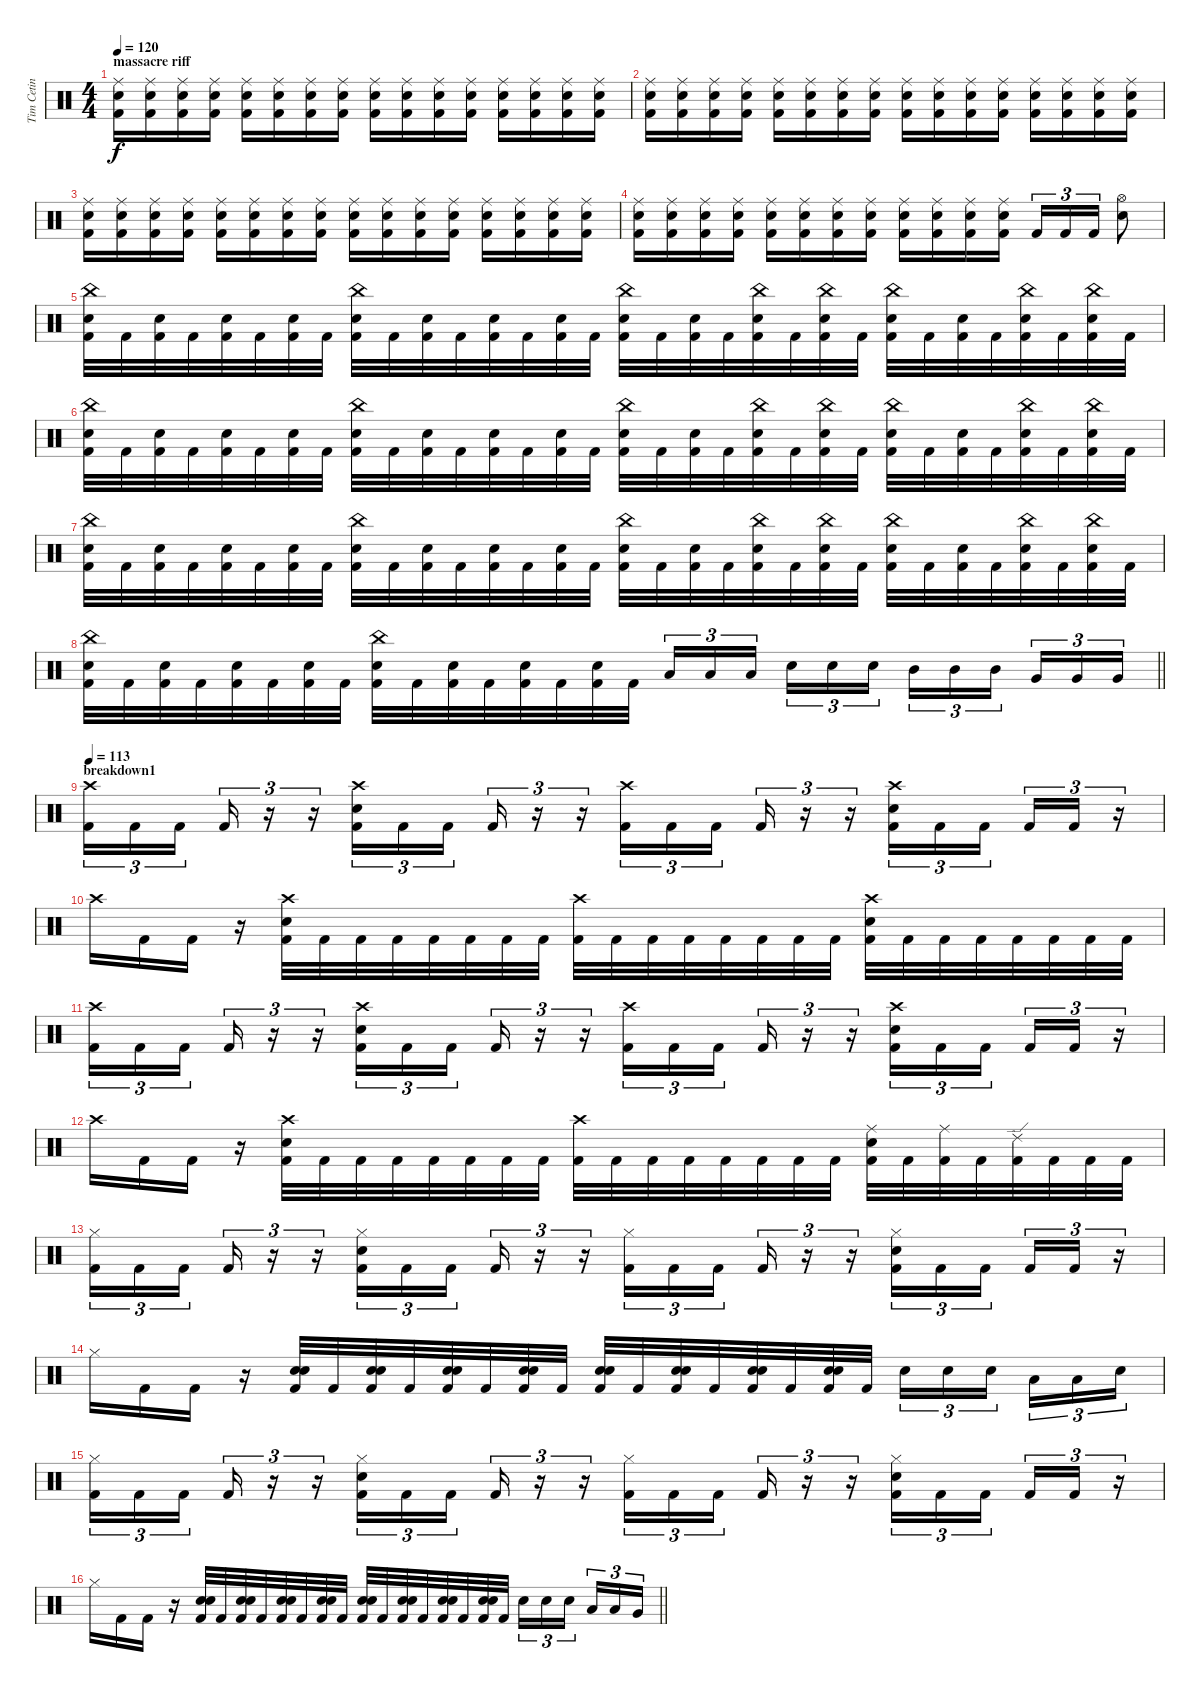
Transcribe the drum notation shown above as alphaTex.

\track ("Tim Cetin" "Tim Cetin") {instrument percussion}
\staff {score}
\articulation defaults
\ts (4 4)
\section ("" "massacre riff")
\tempo 120
\clef neutral
\ks c
("Ride (middle)" "Snare (hit) 2" "Kick (hit) 2").16{dy f} ("Ride (middle)" "Snare (hit) 2" "Kick (hit) 2").16 ("Ride (middle)" "Snare (hit) 2" "Kick (hit) 2").16 ("Ride (middle)" "Snare (hit) 2" "Kick (hit) 2").16 ("Ride (middle)" "Snare (hit) 2" "Kick (hit) 2").16 ("Ride (middle)" "Snare (hit) 2" "Kick (hit) 2").16 ("Ride (middle)" "Snare (hit) 2" "Kick (hit) 2").16 ("Ride (middle)" "Snare (hit) 2" "Kick (hit) 2").16 ("Ride (middle)" "Snare (hit) 2" "Kick (hit) 2").16 ("Ride (middle)" "Snare (hit) 2" "Kick (hit) 2").16 ("Ride (middle)" "Snare (hit) 2" "Kick (hit) 2").16 ("Ride (middle)" "Snare (hit) 2" "Kick (hit) 2").16 ("Ride (middle)" "Snare (hit) 2" "Kick (hit) 2").16 ("Ride (middle)" "Snare (hit) 2" "Kick (hit) 2").16 ("Ride (middle)" "Snare (hit) 2" "Kick (hit) 2").16 ("Ride (middle)" "Snare (hit) 2" "Kick (hit) 2").16 |
("Ride (middle)" "Snare (hit) 2" "Kick (hit) 2").16 ("Ride (middle)" "Snare (hit) 2" "Kick (hit) 2").16 ("Ride (middle)" "Snare (hit) 2" "Kick (hit) 2").16 ("Ride (middle)" "Snare (hit) 2" "Kick (hit) 2").16 ("Ride (middle)" "Snare (hit) 2" "Kick (hit) 2").16 ("Ride (middle)" "Snare (hit) 2" "Kick (hit) 2").16 ("Ride (middle)" "Snare (hit) 2" "Kick (hit) 2").16 ("Ride (middle)" "Snare (hit) 2" "Kick (hit) 2").16 ("Ride (middle)" "Snare (hit) 2" "Kick (hit) 2").16 ("Ride (middle)" "Snare (hit) 2" "Kick (hit) 2").16 ("Ride (middle)" "Snare (hit) 2" "Kick (hit) 2").16 ("Ride (middle)" "Snare (hit) 2" "Kick (hit) 2").16 ("Ride (middle)" "Snare (hit) 2" "Kick (hit) 2").16 ("Ride (middle)" "Snare (hit) 2" "Kick (hit) 2").16 ("Ride (middle)" "Snare (hit) 2" "Kick (hit) 2").16 ("Ride (middle)" "Snare (hit) 2" "Kick (hit) 2").16 |
("Ride (middle)" "Snare (hit) 2" "Kick (hit) 2").16 ("Ride (middle)" "Snare (hit) 2" "Kick (hit) 2").16 ("Ride (middle)" "Snare (hit) 2" "Kick (hit) 2").16 ("Ride (middle)" "Snare (hit) 2" "Kick (hit) 2").16 ("Ride (middle)" "Snare (hit) 2" "Kick (hit) 2").16 ("Ride (middle)" "Snare (hit) 2" "Kick (hit) 2").16 ("Ride (middle)" "Snare (hit) 2" "Kick (hit) 2").16 ("Ride (middle)" "Snare (hit) 2" "Kick (hit) 2").16 ("Ride (middle)" "Snare (hit) 2" "Kick (hit) 2").16 ("Ride (middle)" "Snare (hit) 2" "Kick (hit) 2").16 ("Ride (middle)" "Snare (hit) 2" "Kick (hit) 2").16 ("Ride (middle)" "Snare (hit) 2" "Kick (hit) 2").16 ("Ride (middle)" "Snare (hit) 2" "Kick (hit) 2").16 ("Ride (middle)" "Snare (hit) 2" "Kick (hit) 2").16 ("Ride (middle)" "Snare (hit) 2" "Kick (hit) 2").16 ("Ride (middle)" "Snare (hit) 2" "Kick (hit) 2").16 |
("Ride (middle)" "Snare (hit) 2" "Kick (hit) 2").16 ("Ride (middle)" "Snare (hit) 2" "Kick (hit) 2").16 ("Ride (middle)" "Snare (hit) 2" "Kick (hit) 2").16 ("Ride (middle)" "Snare (hit) 2" "Kick (hit) 2").16 ("Ride (middle)" "Snare (hit) 2" "Kick (hit) 2").16 ("Ride (middle)" "Snare (hit) 2" "Kick (hit) 2").16 ("Ride (middle)" "Snare (hit) 2" "Kick (hit) 2").16 ("Ride (middle)" "Snare (hit) 2" "Kick (hit) 2").16 ("Ride (middle)" "Snare (hit) 2" "Kick (hit) 2").16 ("Ride (middle)" "Snare (hit) 2" "Kick (hit) 2").16 ("Ride (middle)" "Snare (hit) 2" "Kick (hit) 2").16 ("Ride (middle)" "Snare (hit) 2" "Kick (hit) 2").16 "Kick (hit) 2".16{tu (3 2)} "Kick (hit) 2".16{tu (3 2)} "Kick (hit) 2".16{tu (3 2)} ("Hi-Hat (open)" "Snare (hit) 2").8 |
("China (choke)" "Snare (hit) 2" "Kick (hit) 2").32 "Kick (hit) 2".32 ("Snare (hit) 2" "Kick (hit) 2").32 "Kick (hit) 2".32 ("Snare (hit) 2" "Kick (hit) 2").32 "Kick (hit) 2".32 ("Snare (hit) 2" "Kick (hit) 2").32 "Kick (hit) 2".32 ("China (choke)" "Snare (hit) 2" "Kick (hit) 2").32 "Kick (hit) 2".32 ("Snare (hit) 2" "Kick (hit) 2").32 "Kick (hit) 2".32 ("Snare (hit) 2" "Kick (hit) 2").32 "Kick (hit) 2".32 ("Snare (hit) 2" "Kick (hit) 2").32 "Kick (hit) 2".32 ("China (choke)" "Snare (hit) 2" "Kick (hit) 2").32 "Kick (hit) 2".32 ("Snare (hit) 2" "Kick (hit) 2").32 "Kick (hit) 2".32 ("China (choke)" "Snare (hit) 2" "Kick (hit) 2").32 "Kick (hit) 2".32 ("China (choke)" "Snare (hit) 2" "Kick (hit) 2").32 "Kick (hit) 2".32 ("China (choke)" "Snare (hit) 2" "Kick (hit) 2").32 "Kick (hit) 2".32 ("Snare (hit) 2" "Kick (hit) 2").32 "Kick (hit) 2".32 ("China (choke)" "Snare (hit) 2" "Kick (hit) 2").32 "Kick (hit) 2".32 ("China (choke)" "Snare (hit) 2" "Kick (hit) 2").32 "Kick (hit) 2".32 |
("China (choke)" "Snare (hit) 2" "Kick (hit) 2").32 "Kick (hit) 2".32 ("Snare (hit) 2" "Kick (hit) 2").32 "Kick (hit) 2".32 ("Snare (hit) 2" "Kick (hit) 2").32 "Kick (hit) 2".32 ("Snare (hit) 2" "Kick (hit) 2").32 "Kick (hit) 2".32 ("China (choke)" "Snare (hit) 2" "Kick (hit) 2").32 "Kick (hit) 2".32 ("Snare (hit) 2" "Kick (hit) 2").32 "Kick (hit) 2".32 ("Snare (hit) 2" "Kick (hit) 2").32 "Kick (hit) 2".32 ("Snare (hit) 2" "Kick (hit) 2").32 "Kick (hit) 2".32 ("China (choke)" "Snare (hit) 2" "Kick (hit) 2").32 "Kick (hit) 2".32 ("Snare (hit) 2" "Kick (hit) 2").32 "Kick (hit) 2".32 ("China (choke)" "Snare (hit) 2" "Kick (hit) 2").32 "Kick (hit) 2".32 ("China (choke)" "Snare (hit) 2" "Kick (hit) 2").32 "Kick (hit) 2".32 ("China (choke)" "Snare (hit) 2" "Kick (hit) 2").32 "Kick (hit) 2".32 ("Snare (hit) 2" "Kick (hit) 2").32 "Kick (hit) 2".32 ("China (choke)" "Snare (hit) 2" "Kick (hit) 2").32 "Kick (hit) 2".32 ("China (choke)" "Snare (hit) 2" "Kick (hit) 2").32 "Kick (hit) 2".32 |
("China (choke)" "Snare (hit) 2" "Kick (hit) 2").32 "Kick (hit) 2".32 ("Snare (hit) 2" "Kick (hit) 2").32 "Kick (hit) 2".32 ("Snare (hit) 2" "Kick (hit) 2").32 "Kick (hit) 2".32 ("Snare (hit) 2" "Kick (hit) 2").32 "Kick (hit) 2".32 ("China (choke)" "Snare (hit) 2" "Kick (hit) 2").32 "Kick (hit) 2".32 ("Snare (hit) 2" "Kick (hit) 2").32 "Kick (hit) 2".32 ("Snare (hit) 2" "Kick (hit) 2").32 "Kick (hit) 2".32 ("Snare (hit) 2" "Kick (hit) 2").32 "Kick (hit) 2".32 ("China (choke)" "Snare (hit) 2" "Kick (hit) 2").32 "Kick (hit) 2".32 ("Snare (hit) 2" "Kick (hit) 2").32 "Kick (hit) 2".32 ("China (choke)" "Snare (hit) 2" "Kick (hit) 2").32 "Kick (hit) 2".32 ("China (choke)" "Snare (hit) 2" "Kick (hit) 2").32 "Kick (hit) 2".32 ("China (choke)" "Snare (hit) 2" "Kick (hit) 2").32 "Kick (hit) 2".32 ("Snare (hit) 2" "Kick (hit) 2").32 "Kick (hit) 2".32 ("China (choke)" "Snare (hit) 2" "Kick (hit) 2").32 "Kick (hit) 2".32 ("China (choke)" "Snare (hit) 2" "Kick (hit) 2").32 "Kick (hit) 2".32 |
\barLineRight lightlight
("China (choke)" "Snare (hit) 2" "Kick (hit) 2").32 "Kick (hit) 2".32 ("Snare (hit) 2" "Kick (hit) 2").32 "Kick (hit) 2".32 ("Snare (hit) 2" "Kick (hit) 2").32 "Kick (hit) 2".32 ("Snare (hit) 2" "Kick (hit) 2").32 "Kick (hit) 2".32 ("China (choke)" "Snare (hit) 2" "Kick (hit) 2").32 "Kick (hit) 2".32 ("Snare (hit) 2" "Kick (hit) 2").32 "Kick (hit) 2".32 ("Snare (hit) 2" "Kick (hit) 2").32 "Kick (hit) 2".32 ("Snare (hit) 2" "Kick (hit) 2").32 "Kick (hit) 2".32 "Low Tom (hit)".16{tu (3 2)} "Low Tom (hit)".16{tu (3 2)} "Low Tom (hit)".16{tu (3 2) beam splitsecondary} "Snare (hit) 2".16{tu (3 2)} "Snare (hit) 2".16{tu (3 2)} "Snare (hit) 2".16{tu (3 2)} "Mid Tom (hit)".16{tu (3 2)} "Mid Tom (hit)".16{tu (3 2)} "Mid Tom (hit)".16{tu (3 2) beam splitsecondary} "Very Low Tom (hit)".16{tu (3 2)} "Very Low Tom (hit)".16{tu (3 2)} "Very Low Tom (hit)".16{tu (3 2)} |
\section ("" "breakdown1")
\tempo 113
("Crash high (hit)" "Kick (hit) 2").16{tu (3 2)} "Kick (hit) 2".16{tu (3 2)} "Kick (hit) 2".16{tu (3 2) beam splitsecondary} "Kick (hit) 2".16{tu (3 2)} r.16{tu (3 2)} r.16{tu (3 2)} ("Crash high (hit)" "Snare (hit) 2" "Kick (hit) 2").16{tu (3 2)} "Kick (hit) 2".16{tu (3 2)} "Kick (hit) 2".16{tu (3 2) beam splitsecondary} "Kick (hit) 2".16{tu (3 2)} r.16{tu (3 2)} r.16{tu (3 2)} ("Crash high (hit)" "Kick (hit) 2").16{tu (3 2)} "Kick (hit) 2".16{tu (3 2)} "Kick (hit) 2".16{tu (3 2) beam splitsecondary} "Kick (hit) 2".16{tu (3 2)} r.16{tu (3 2)} r.16{tu (3 2)} ("Crash high (hit)" "Snare (hit) 2" "Kick (hit) 2").16{tu (3 2)} "Kick (hit) 2".16{tu (3 2)} "Kick (hit) 2".16{tu (3 2) beam splitsecondary} "Kick (hit) 2".16{tu (3 2)} "Kick (hit) 2".16{tu (3 2)} r.16{tu (3 2)} |
"Crash high (hit)".16 "Kick (hit) 2".16 "Kick (hit) 2".16 r.16 ("Crash high (hit)" "Snare (hit) 2" "Kick (hit) 2").32 "Kick (hit) 2".32 "Kick (hit) 2".32 "Kick (hit) 2".32 "Kick (hit) 2".32 "Kick (hit) 2".32 "Kick (hit) 2".32 "Kick (hit) 2".32 ("Crash high (hit)" "Kick (hit) 2").32 "Kick (hit) 2".32 "Kick (hit) 2".32 "Kick (hit) 2".32 "Kick (hit) 2".32 "Kick (hit) 2".32 "Kick (hit) 2".32 "Kick (hit) 2".32 ("Crash high (hit)" "Snare (hit) 2" "Kick (hit) 2").32 "Kick (hit) 2".32 "Kick (hit) 2".32 "Kick (hit) 2".32 "Kick (hit) 2".32 "Kick (hit) 2".32 "Kick (hit) 2".32 "Kick (hit) 2".32 |
("Crash high (hit)" "Kick (hit) 2").16{tu (3 2)} "Kick (hit) 2".16{tu (3 2)} "Kick (hit) 2".16{tu (3 2) beam splitsecondary} "Kick (hit) 2".16{tu (3 2)} r.16{tu (3 2)} r.16{tu (3 2)} ("Crash high (hit)" "Snare (hit) 2" "Kick (hit) 2").16{tu (3 2)} "Kick (hit) 2".16{tu (3 2)} "Kick (hit) 2".16{tu (3 2) beam splitsecondary} "Kick (hit) 2".16{tu (3 2)} r.16{tu (3 2)} r.16{tu (3 2)} ("Crash high (hit)" "Kick (hit) 2").16{tu (3 2)} "Kick (hit) 2".16{tu (3 2)} "Kick (hit) 2".16{tu (3 2) beam splitsecondary} "Kick (hit) 2".16{tu (3 2)} r.16{tu (3 2)} r.16{tu (3 2)} ("Crash high (hit)" "Snare (hit) 2" "Kick (hit) 2").16{tu (3 2)} "Kick (hit) 2".16{tu (3 2)} "Kick (hit) 2".16{tu (3 2) beam splitsecondary} "Kick (hit) 2".16{tu (3 2)} "Kick (hit) 2".16{tu (3 2)} r.16{tu (3 2)} |
"Crash high (hit)".16 "Kick (hit) 2".16 "Kick (hit) 2".16 r.16 ("Crash high (hit)" "Snare (hit) 2" "Kick (hit) 2").32 "Kick (hit) 2".32 "Kick (hit) 2".32 "Kick (hit) 2".32 "Kick (hit) 2".32 "Kick (hit) 2".32 "Kick (hit) 2".32 "Kick (hit) 2".32 ("Crash high (hit)" "Kick (hit) 2").32 "Kick (hit) 2".32 "Kick (hit) 2".32 "Kick (hit) 2".32 "Kick (hit) 2".32 "Kick (hit) 2".32 "Kick (hit) 2".32 "Kick (hit) 2".32 ("Ride (middle)" "Snare (hit) 2" "Kick (hit) 2").32 "Kick (hit) 2".32 ("Ride (middle)" "Kick (hit) 2").32 "Kick (hit) 2".32 ("Ride (edge) 2" "Kick (hit) 2").32 "Kick (hit) 2".32 "Kick (hit) 2".32 "Kick (hit) 2".32 |
("Hi-Hat (closed)" "Kick (hit) 2").16{tu (3 2)} "Kick (hit) 2".16{tu (3 2)} "Kick (hit) 2".16{tu (3 2) beam splitsecondary} "Kick (hit) 2".16{tu (3 2)} r.16{tu (3 2)} r.16{tu (3 2)} ("Hi-Hat (closed)" "Snare (hit) 2" "Kick (hit) 2").16{tu (3 2)} "Kick (hit) 2".16{tu (3 2)} "Kick (hit) 2".16{tu (3 2) beam splitsecondary} "Kick (hit) 2".16{tu (3 2)} r.16{tu (3 2)} r.16{tu (3 2)} ("Hi-Hat (closed)" "Kick (hit) 2").16{tu (3 2)} "Kick (hit) 2".16{tu (3 2)} "Kick (hit) 2".16{tu (3 2) beam splitsecondary} "Kick (hit) 2".16{tu (3 2)} r.16{tu (3 2)} r.16{tu (3 2)} ("Hi-Hat (closed)" "Snare (hit) 2" "Kick (hit) 2").16{tu (3 2)} "Kick (hit) 2".16{tu (3 2)} "Kick (hit) 2".16{tu (3 2) beam splitsecondary} "Kick (hit) 2".16{tu (3 2)} "Kick (hit) 2".16{tu (3 2)} r.16{tu (3 2)} |
"Hi-Hat (closed)".16 "Kick (hit) 2".16 "Kick (hit) 2".16 r.16 ("Snare (hit)" "Snare (hit) 2" "Kick (hit) 2").32 "Kick (hit) 2".32 ("Snare (hit)" "Snare (hit) 2" "Kick (hit) 2").32 "Kick (hit) 2".32 ("Snare (hit)" "Snare (hit) 2" "Kick (hit) 2").32 "Kick (hit) 2".32 ("Snare (hit)" "Snare (hit) 2" "Kick (hit) 2").32 "Kick (hit) 2".32 ("Snare (hit)" "Snare (hit) 2" "Kick (hit) 2").32 "Kick (hit) 2".32 ("Snare (hit)" "Snare (hit) 2" "Kick (hit) 2").32 "Kick (hit) 2".32 ("Snare (hit)" "Snare (hit) 2" "Kick (hit) 2").32 "Kick (hit) 2".32 ("Snare (hit)" "Snare (hit) 2" "Kick (hit) 2").32 "Kick (hit) 2".32 "Snare (hit) 2".16{tu (3 2)} "Snare (hit) 2".16{tu (3 2)} "Snare (hit) 2".16{tu (3 2) beam splitsecondary} "Low Tom (hit)".16{tu (3 2)} "Low Tom (hit)".16{tu (3 2)} "Snare (hit) 2".16{tu (3 2)} |
("Hi-Hat (closed)" "Kick (hit) 2").16{tu (3 2)} "Kick (hit) 2".16{tu (3 2)} "Kick (hit) 2".16{tu (3 2) beam splitsecondary} "Kick (hit) 2".16{tu (3 2)} r.16{tu (3 2)} r.16{tu (3 2)} ("Hi-Hat (closed)" "Snare (hit) 2" "Kick (hit) 2").16{tu (3 2)} "Kick (hit) 2".16{tu (3 2)} "Kick (hit) 2".16{tu (3 2) beam splitsecondary} "Kick (hit) 2".16{tu (3 2)} r.16{tu (3 2)} r.16{tu (3 2)} ("Hi-Hat (closed)" "Kick (hit) 2").16{tu (3 2)} "Kick (hit) 2".16{tu (3 2)} "Kick (hit) 2".16{tu (3 2) beam splitsecondary} "Kick (hit) 2".16{tu (3 2)} r.16{tu (3 2)} r.16{tu (3 2)} ("Hi-Hat (closed)" "Snare (hit) 2" "Kick (hit) 2").16{tu (3 2)} "Kick (hit) 2".16{tu (3 2)} "Kick (hit) 2".16{tu (3 2) beam splitsecondary} "Kick (hit) 2".16{tu (3 2)} "Kick (hit) 2".16{tu (3 2)} r.16{tu (3 2)} |
\barLineRight lightlight "Hi-Hat (closed)".16 "Kick (hit) 2".16 "Kick (hit) 2".16
r.16 ("Snare (hit)" "Snare (hit) 2" "Kick (hit) 2").32 "Kick (hit) 2".32 ("Snare (hit)" "Snare (hit) 2" "Kick (hit) 2").32 "Kick (hit) 2".32 ("Snare (hit)" "Snare (hit) 2" "Kick (hit) 2").32 "Kick (hit) 2".32 ("Snare (hit)" "Snare (hit) 2" "Kick (hit) 2").32 "Kick (hit) 2".32 ("Snare (hit)" "Snare (hit) 2" "Kick (hit) 2").32 "Kick (hit) 2".32 ("Snare (hit)" "Snare (hit) 2" "Kick (hit) 2").32 "Kick (hit) 2".32 ("Snare (hit)" "Snare (hit) 2" "Kick (hit) 2").32 "Kick (hit) 2".32 ("Snare (hit)" "Snare (hit) 2" "Kick (hit) 2").32 "Kick (hit) 2".32 "Snare (hit) 2".16{tu (3 2)} "Snare (hit) 2".16{tu (3 2)} "Snare (hit) 2".16{tu (3 2) beam splitsecondary} "Low Tom (hit)".16{tu (3 2)} "Low Tom (hit)".16{tu (3 2)} "Very Low Tom (hit)".16{tu (3 2)}
